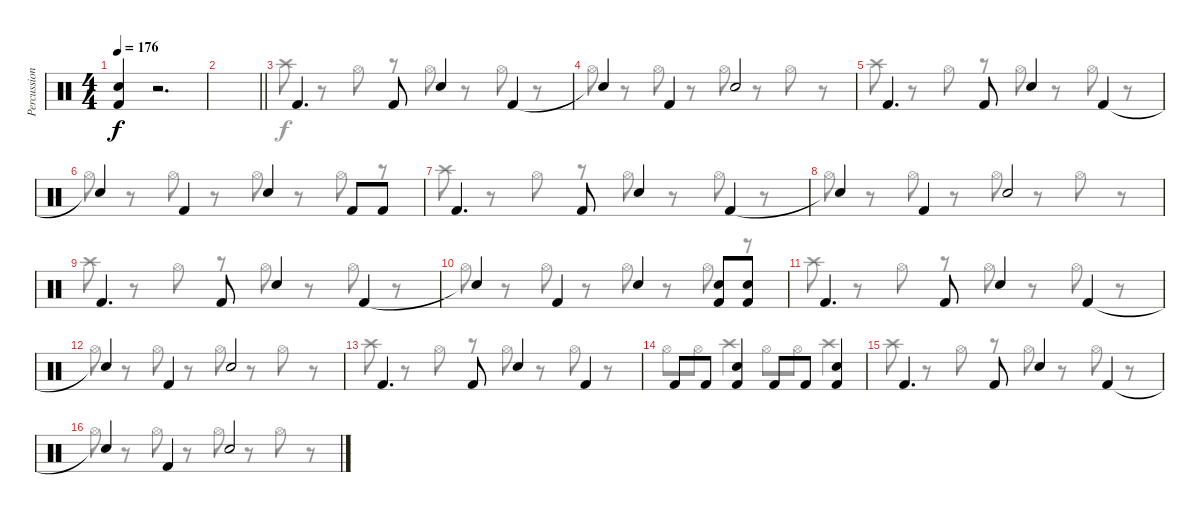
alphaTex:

\track ("Percussion" "Percussion") {instrument percussion}
\staff {score}
\articulation defaults
\voice
\ts (4 4)
\tempo 176
\clef neutral
\ks c
("Electric Snare (hit)" "Kick (hit) 2").4{dy f} r.2{d} |
\barLineRight lightlight
|
"Kick (hit) 2".4{d} "Kick (hit) 2".8 "Electric Snare (hit)".4 "Kick (hit) 2".4 |
"Snare (hit)"{t}.4 "Kick (hit) 2".4 "Electric Snare (hit)".2 |
"Kick (hit) 2".4{d} "Kick (hit) 2".8 "Electric Snare (hit)".4 "Kick (hit) 2".4 |
"Snare (hit)"{t}.4 "Kick (hit) 2".4 "Electric Snare (hit)".4 "Kick (hit) 2".8 "Kick (hit) 2".8 |
"Kick (hit) 2".4{d} "Kick (hit) 2".8 "Electric Snare (hit)".4 "Kick (hit) 2".4 |
"Snare (hit)"{t}.4 "Kick (hit) 2".4 "Electric Snare (hit)".2 |
"Kick (hit) 2".4{d} "Kick (hit) 2".8 "Electric Snare (hit)".4 "Kick (hit) 2".4 |
"Snare (hit)"{t}.4 "Kick (hit) 2".4 "Electric Snare (hit)".4 ("Electric Snare (hit)" "Kick (hit) 2").8 ("Electric Snare (hit)" "Kick (hit) 2").8 |
"Kick (hit) 2".4{d} "Kick (hit) 2".8 "Electric Snare (hit)".4 "Kick (hit) 2".4 |
"Snare (hit)"{t}.4 "Kick (hit) 2".4 "Electric Snare (hit)".2 |
"Kick (hit) 2".4{d} "Kick (hit) 2".8 "Electric Snare (hit)".4 "Kick (hit) 2".4 |
"Kick (hit) 2".8 "Kick (hit) 2".8 ("Electric Snare (hit)" "Kick (hit) 2").4 "Kick (hit) 2".8 "Kick (hit) 2".8 ("Electric Snare (hit)" "Kick (hit) 2").4 |
"Kick (hit) 2".4{d} "Kick (hit) 2".8 "Electric Snare (hit)".4 "Kick (hit) 2".4 |
"Snare (hit)"{t}.4 "Kick (hit) 2".4 "Electric Snare (hit)".2
\voice
\clef neutral
\ottava regular
\simile none
\ks c
|
\barLineRight lightlight
|
"Crash high (hit)".8 r.8 "Hi-Hat (open)".8 r.8 "Hi-Hat (open)".8 r.8 "Hi-Hat (open)".8 r.8 |
"Hi-Hat (open)".8 r.8 "Hi-Hat (open)".8 r.8 "Hi-Hat (open)".8 r.8 "Hi-Hat (open)".8 r.8 |
"Crash high (hit)".8 r.8 "Hi-Hat (open)".8 r.8 "Hi-Hat (open)".8 r.8 "Hi-Hat (open)".8 r.8 |
"Hi-Hat (open)".8 r.8 "Hi-Hat (open)".8 r.8 "Hi-Hat (open)".8 r.8 "Hi-Hat (open)".8 r.8 |
"Crash high (hit)".8 r.8 "Hi-Hat (open)".8 r.8 "Hi-Hat (open)".8 r.8 "Hi-Hat (open)".8 r.8 |
"Hi-Hat (open)".8 r.8 "Hi-Hat (open)".8 r.8 "Hi-Hat (open)".8 r.8 "Hi-Hat (open)".8 r.8 |
"Crash high (hit)".8 r.8 "Hi-Hat (open)".8 r.8 "Hi-Hat (open)".8 r.8 "Hi-Hat (open)".8 r.8 |
"Hi-Hat (open)".8 r.8 "Hi-Hat (open)".8 r.8 "Hi-Hat (open)".8 r.8 "Hi-Hat (open)".8 r.8 |
"Crash high (hit)".8 r.8 "Hi-Hat (open)".8 r.8 "Hi-Hat (open)".8 r.8 "Hi-Hat (open)".8 r.8 |
"Hi-Hat (open)".8 r.8 "Hi-Hat (open)".8 r.8 "Hi-Hat (open)".8 r.8 "Hi-Hat (open)".8 r.8 |
"Crash high (hit)".8 r.8 "Hi-Hat (open)".8 r.8 "Hi-Hat (open)".8 r.8 "Hi-Hat (open)".8 r.8 |
"Hi-Hat (open)".8 "Hi-Hat (open)".8 "Crash high (hit)".4 "Hi-Hat (open)".8 "Hi-Hat (open)".8 "Crash high (hit)".4 |
"Crash high (hit)".8 r.8 "Hi-Hat (open)".8 r.8 "Hi-Hat (open)".8 r.8 "Hi-Hat (open)".8 r.8 |
"Hi-Hat (open)".8 r.8 "Hi-Hat (open)".8 r.8 "Hi-Hat (open)".8 r.8 "Hi-Hat (open)".8 r.8
